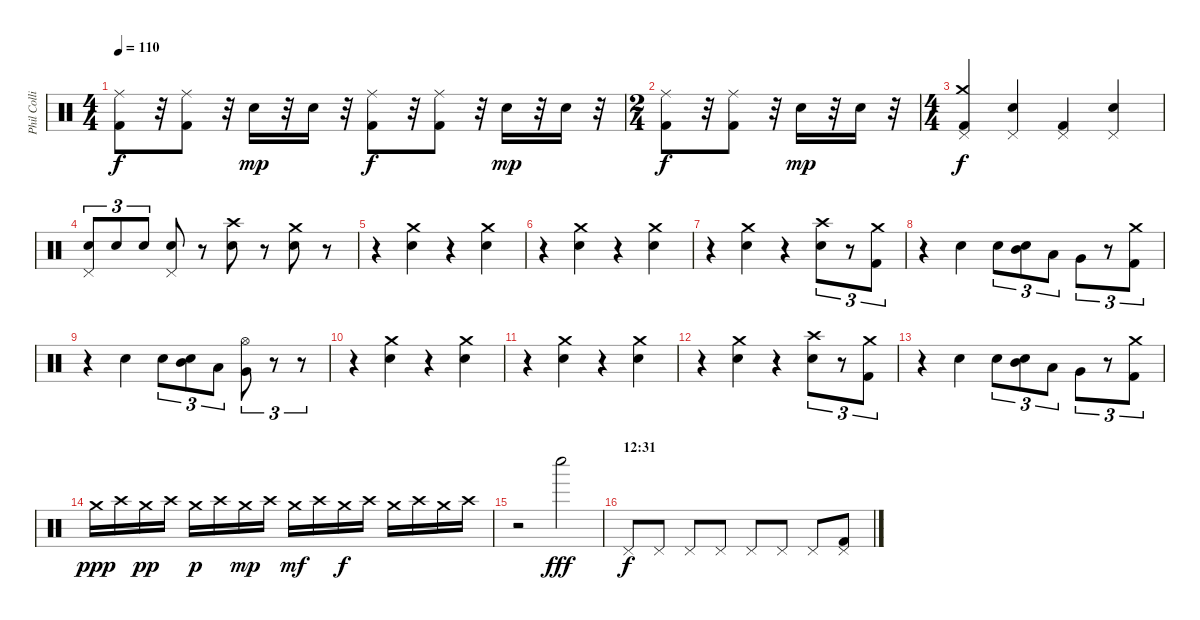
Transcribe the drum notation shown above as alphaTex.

\track ("Phil Collins (drums)" "Phil Colli") {instrument percussion}
\staff {score}
\articulation defaults
\ts (4 4)
\tempo 110
\clef neutral
\ks c
("Ride (middle)" "Kick (hit) 2").8{dy f} r.32 ("Ride (middle)" "Kick (hit) 2").8 r.32 "Electric Snare (hit)".16{dy mp} r.32 "Electric Snare (hit)".16 r.32 ("Ride (middle)" "Kick (hit) 2").8{dy f} r.32 ("Ride (middle)" "Kick (hit) 2").8 r.32 "Electric Snare (hit)".16{dy mp} r.32 "Electric Snare (hit)".16 r.32 |
\ts (2 4)
("Ride (middle)" "Kick (hit) 2").8{dy f} r.32 ("Ride (middle)" "Kick (hit) 2").8 r.32 "Electric Snare (hit)".16{dy mp} r.32 "Electric Snare (hit)".16 r.32 |
\ts (4 4)
("Crash medium (hit)" "Pedal Hi-Hat (hit)" "Kick (hit) 2").4{dy f} ("Pedal Hi-Hat (hit)" "Electric Snare (hit)").4 ("Pedal Hi-Hat (hit)" "Kick (hit) 2").4 ("Pedal Hi-Hat (hit)" "Electric Snare (hit)").4 |
("Pedal Hi-Hat (hit)" "Electric Snare (hit)").8{tu (3 2)} "Electric Snare (hit)".8{tu (3 2)} "Electric Snare (hit)".8{tu (3 2)} ("Pedal Hi-Hat (hit)" "Electric Snare (hit)").8 r.8 ("Crash high (hit)" "Electric Snare (hit)").8 r.8 ("Crash medium (hit)" "Electric Snare (hit)").8 r.8 |
r.4 ("Crash medium (hit)" "Electric Snare (hit)").4 r.4 ("Crash medium (hit)" "Electric Snare (hit)").4 |
r.4 ("Crash medium (hit)" "Electric Snare (hit)").4 r.4 ("Crash medium (hit)" "Electric Snare (hit)").4 |
r.4 ("Crash medium (hit)" "Electric Snare (hit)").4 r.4 ("Crash high (hit)" "Electric Snare (hit)").8{tu (3 2)} r.8{tu (3 2)} ("Crash medium (hit)" "Kick (hit) 2").8{tu (3 2)} |
r.4 "Electric Snare (hit)".4 "Electric Snare (hit)".8{tu (3 2)} ("Mid Tom (hit)" "Electric Snare (hit)").8{tu (3 2)} "Low Tom (hit)".8{tu (3 2)} "Very Low Tom (hit)".8{tu (3 2)} r.8{tu (3 2)} ("Crash medium (hit)" "Kick (hit) 2").8{tu (3 2)} |
r.4 "Electric Snare (hit)".4 "Electric Snare (hit)".8{tu (3 2)} ("Mid Tom (hit)" "Electric Snare (hit)").8{tu (3 2)} "Low Tom (hit)".8{tu (3 2)} ("Very Low Tom (hit)" "Hi-Hat (open)").8{tu (3 2)} r.8{tu (3 2)} r.8{tu (3 2)} |
r.4 ("Crash medium (hit)" "Electric Snare (hit)").4 r.4 ("Crash medium (hit)" "Electric Snare (hit)").4 |
r.4 ("Crash medium (hit)" "Electric Snare (hit)").4 r.4 ("Crash medium (hit)" "Electric Snare (hit)").4 |
r.4 ("Crash medium (hit)" "Electric Snare (hit)").4 r.4 ("Crash high (hit)" "Electric Snare (hit)").8{tu (3 2)} r.8{tu (3 2)} ("Crash medium (hit)" "Kick (hit) 2").8{tu (3 2)} |
r.4 "Electric Snare (hit)".4 "Electric Snare (hit)".8{tu (3 2)} ("Mid Tom (hit)" "Electric Snare (hit)").8{tu (3 2)} "Low Tom (hit)".8{tu (3 2)} "Very Low Tom (hit)".8{tu (3 2)} r.8{tu (3 2)} ("Crash medium (hit)" "Kick (hit) 2").8{tu (3 2)} |
"Crash medium (hit)".16{dy ppp} "Crash high (hit)".16 "Crash medium (hit)".16{dy pp} "Crash high (hit)".16 "Crash medium (hit)".16{dy p} "Crash high (hit)".16 "Crash medium (hit)".16{dy mp} "Crash high (hit)".16 "Crash medium (hit)".16{dy mf} "Crash high (hit)".16 "Crash medium (hit)".16{dy f} "Crash high (hit)".16 "Crash medium (hit)".16 "Crash high (hit)".16 "Crash medium (hit)".16 "Crash high (hit)".16 |
r.2 "Whistle low (hit)".2{dy fff} |
\section ("" "12:31")
"Pedal Hi-Hat (hit)".8{dy f} "Pedal Hi-Hat (hit)".8 "Pedal Hi-Hat (hit)".8 "Pedal Hi-Hat (hit)".8 "Pedal Hi-Hat (hit)".8 "Pedal Hi-Hat (hit)".8 "Pedal Hi-Hat (hit)".8 ("Kick (hit) 2" "Pedal Hi-Hat (hit)").8
